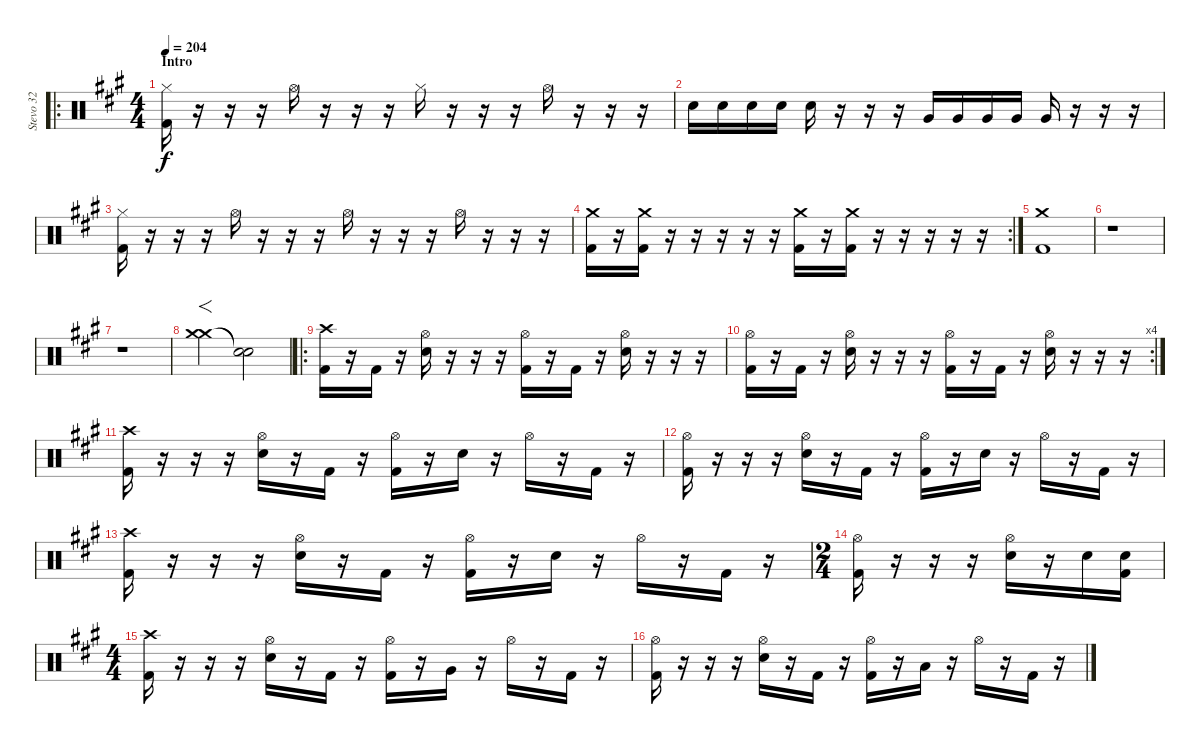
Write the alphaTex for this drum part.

\track ("Stevo 32" "Stevo 32") {instrument percussion}
\staff {score}
\articulation defaults
\ro
\ts (4 4)
\section ("" "Intro")
\tempo 204
\clef neutral
\ks a
("Hi-Hat (closed)" "Kick (hit) 2").16{dy f} r.16 r.16 r.16 "Hi-Hat (open)".16 r.16 r.16 r.16 "Hi-Hat (closed)".16 r.16 r.16 r.16 "Hi-Hat (open)".16 r.16 r.16 r.16 |
"Snare (hit) 2".16 "Snare (hit) 2".16 "Snare (hit) 2".16 "Snare (hit) 2".16 "Snare (hit) 2".16 r.16 r.16 r.16 "Very Low Tom (hit)".16 "Very Low Tom (hit)".16 "Very Low Tom (hit)".16 "Very Low Tom (hit)".16 "Very Low Tom (hit)".16 r.16 r.16 r.16 |
("Hi-Hat (closed)" "Kick (hit) 2").16 r.16 r.16 r.16 "Hi-Hat (open)".16 r.16 r.16 r.16 "Hi-Hat (open)".16 r.16 r.16 r.16 "Hi-Hat (open)".16 r.16 r.16 r.16 |
\rc 2
("Crash medium (hit)" "Kick (hit) 2").16 r.16 ("Crash medium (hit)" "Kick (hit) 2").16 r.16 r.16 r.16 r.16 r.16 ("Crash medium (hit)" "Kick (hit) 2").16 r.16 ("Crash medium (hit)" "Kick (hit) 2").16 r.16 r.16 r.16 r.16 r.16 |
("Crash medium (hit)" "Kick (hit) 2").1 |
r.1 |
r.1 |
("Crash medium (hit)" "Crash medium (hit)").2{f} ("Snare (hit)"{t} "Snare (hit)"{t}).2 |
\ro
("Crash high (hit)" "Kick (hit) 2").16 r.16 "Kick (hit) 2".16 r.16 ("Hi-Hat (open)" "Snare (hit) 2").16 r.16 r.16 r.16 ("Hi-Hat (open)" "Kick (hit) 2").16 r.16 "Kick (hit) 2".16 r.16 ("Hi-Hat (open)" "Snare (hit) 2").16 r.16 r.16 r.16 |
\rc 4
("Hi-Hat (open)" "Kick (hit) 2").16 r.16 "Kick (hit) 2".16 r.16 ("Hi-Hat (open)" "Snare (hit) 2").16 r.16 r.16 r.16 ("Hi-Hat (open)" "Kick (hit) 2").16 r.16 "Kick (hit) 2".16 r.16 ("Hi-Hat (open)" "Snare (hit) 2").16 r.16 r.16 r.16 |
("Crash high (hit)" "Kick (hit) 2").16 r.16 r.16 r.16 ("Hi-Hat (open)" "Snare (hit) 2").16 r.16 "Kick (hit) 2".16 r.16 ("Hi-Hat (open)" "Kick (hit) 2").16 r.16 "Snare (hit) 2".16 r.16 "Hi-Hat (open)".16 r.16 "Kick (hit) 2".16 r.16 |
("Hi-Hat (open)" "Kick (hit) 2").16 r.16 r.16 r.16 ("Hi-Hat (open)" "Snare (hit) 2").16 r.16 "Kick (hit) 2".16 r.16 ("Hi-Hat (open)" "Kick (hit) 2").16 r.16 "Snare (hit) 2".16 r.16 "Hi-Hat (open)".16 r.16 "Kick (hit) 2".16 r.16 |
("Crash high (hit)" "Kick (hit) 2").16 r.16 r.16 r.16 ("Hi-Hat (open)" "Snare (hit) 2").16 r.16 "Kick (hit) 2".16 r.16 ("Hi-Hat (open)" "Kick (hit) 2").16 r.16 "Snare (hit) 2".16 r.16 "Hi-Hat (open)".16 r.16 "Kick (hit) 2".16 r.16 |
\ts (2 4)
("Hi-Hat (open)" "Kick (hit) 2").16 r.16 r.16 r.16 ("Hi-Hat (open)" "Snare (hit) 2").16 r.16 "Snare (hit) 2".16 ("Snare (hit) 2" "Kick (hit) 2").16 |
\ts (4 4)
("Crash high (hit)" "Kick (hit) 2").16 r.16 r.16 r.16 ("Hi-Hat (open)" "Snare (hit) 2").16 r.16 "Kick (hit) 2".16 r.16 ("Hi-Hat (open)" "Kick (hit) 2").16 r.16 "Very Low Tom (hit)".16 r.16 "Hi-Hat (open)".16 r.16 "Kick (hit) 2".16 r.16 |
("Hi-Hat (open)" "Kick (hit) 2").16 r.16 r.16 r.16 ("Hi-Hat (open)" "Snare (hit) 2").16 r.16 "Kick (hit) 2".16 r.16 ("Hi-Hat (open)" "Kick (hit) 2").16 r.16 "Low Tom (hit)".16 r.16 "Hi-Hat (open)".16 r.16 "Kick (hit) 2".16 r.16
